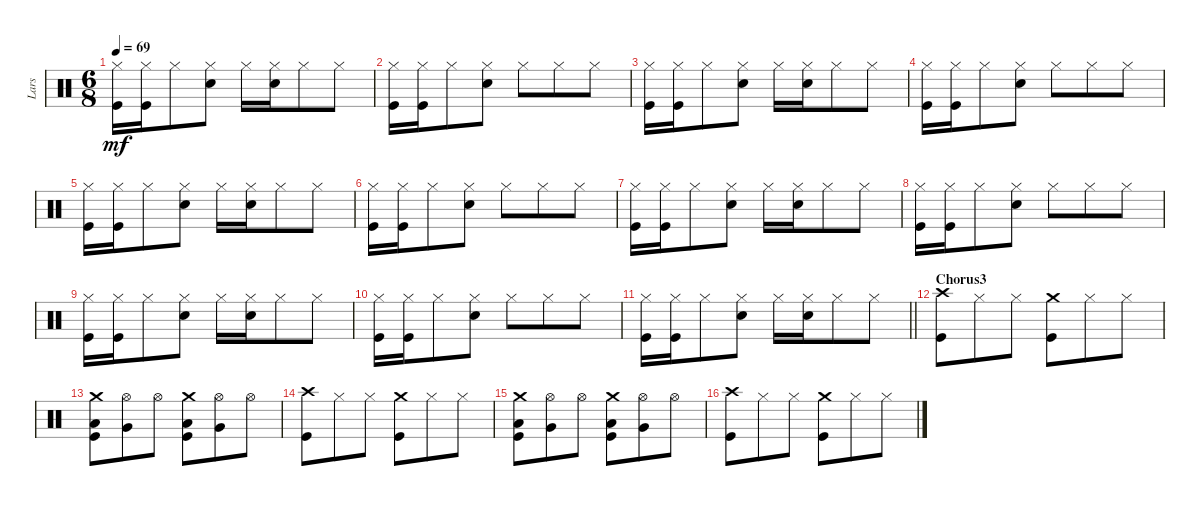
\track ("Lars" "Lars") {instrument percussion}
\staff {score}
\articulation defaults
\ts (6 8)
\tempo 69
\clef neutral
\ks c
("Hi-Hat (closed)" "Kick (hit)").16{dy mf} ("Hi-Hat (closed)" "Kick (hit)").16 "Hi-Hat (closed)".8 ("Hi-Hat (closed)" "Snare (hit) 2").8 "Hi-Hat (closed)".16 ("Hi-Hat (closed)" "Snare (hit) 2").16 "Hi-Hat (closed)".8 "Hi-Hat (closed)".8 |
("Hi-Hat (closed)" "Kick (hit)").16 ("Hi-Hat (closed)" "Kick (hit)").16 "Hi-Hat (closed)".8 ("Hi-Hat (closed)" "Snare (hit) 2").8 "Hi-Hat (closed)".8 "Hi-Hat (closed)".8 "Hi-Hat (closed)".8 |
("Hi-Hat (closed)" "Kick (hit)").16 ("Hi-Hat (closed)" "Kick (hit)").16 "Hi-Hat (closed)".8 ("Hi-Hat (closed)" "Snare (hit) 2").8 "Hi-Hat (closed)".16 ("Hi-Hat (closed)" "Snare (hit) 2").16 "Hi-Hat (closed)".8 "Hi-Hat (closed)".8 |
("Hi-Hat (closed)" "Kick (hit)").16 ("Hi-Hat (closed)" "Kick (hit)").16 "Hi-Hat (closed)".8 ("Hi-Hat (closed)" "Snare (hit) 2").8 "Hi-Hat (closed)".8 "Hi-Hat (closed)".8 "Hi-Hat (closed)".8 |
("Hi-Hat (closed)" "Kick (hit)").16 ("Hi-Hat (closed)" "Kick (hit)").16 "Hi-Hat (closed)".8 ("Hi-Hat (closed)" "Snare (hit) 2").8 "Hi-Hat (closed)".16 ("Hi-Hat (closed)" "Snare (hit) 2").16 "Hi-Hat (closed)".8 "Hi-Hat (closed)".8 |
("Hi-Hat (closed)" "Kick (hit)").16 ("Hi-Hat (closed)" "Kick (hit)").16 "Hi-Hat (closed)".8 ("Hi-Hat (closed)" "Snare (hit) 2").8 "Hi-Hat (closed)".8 "Hi-Hat (closed)".8 "Hi-Hat (closed)".8 |
("Hi-Hat (closed)" "Kick (hit)").16 ("Hi-Hat (closed)" "Kick (hit)").16 "Hi-Hat (closed)".8 ("Hi-Hat (closed)" "Snare (hit) 2").8 "Hi-Hat (closed)".16 ("Hi-Hat (closed)" "Snare (hit) 2").16 "Hi-Hat (closed)".8 "Hi-Hat (closed)".8 |
("Hi-Hat (closed)" "Kick (hit)").16 ("Hi-Hat (closed)" "Kick (hit)").16 "Hi-Hat (closed)".8 ("Hi-Hat (closed)" "Snare (hit) 2").8 "Hi-Hat (closed)".8 "Hi-Hat (closed)".8 "Hi-Hat (closed)".8 |
("Hi-Hat (closed)" "Kick (hit)").16 ("Hi-Hat (closed)" "Kick (hit)").16 "Hi-Hat (closed)".8 ("Hi-Hat (closed)" "Snare (hit) 2").8 "Hi-Hat (closed)".16 ("Hi-Hat (closed)" "Snare (hit) 2").16 "Hi-Hat (closed)".8 "Hi-Hat (closed)".8 |
("Hi-Hat (closed)" "Kick (hit)").16 ("Hi-Hat (closed)" "Kick (hit)").16 "Hi-Hat (closed)".8 ("Hi-Hat (closed)" "Snare (hit) 2").8 "Hi-Hat (closed)".8 "Hi-Hat (closed)".8 "Hi-Hat (closed)".8 |
\barLineRight lightlight
("Hi-Hat (closed)" "Kick (hit)").16 ("Hi-Hat (closed)" "Kick (hit)").16 "Hi-Hat (closed)".8 ("Hi-Hat (closed)" "Snare (hit) 2").8 "Hi-Hat (closed)".16 ("Hi-Hat (closed)" "Snare (hit) 2").16 "Hi-Hat (closed)".8 "Hi-Hat (closed)".8 |
\section ("" "Chorus3")
("Crash high (hit)" "Kick (hit)").8 "Hi-Hat (closed)".8 "Hi-Hat (closed)".8 ("Crash medium (hit)" "Kick (hit)").8 "Hi-Hat (closed)".8 "Hi-Hat (closed)".8 |
("Crash medium (hit)" "Low Tom (hit)" "Kick (hit)").8 ("Hi-Hat (open)" "Very Low Tom (hit)").8 "Hi-Hat (open)".8 ("Crash medium (hit)" "Low Tom (hit)" "Kick (hit)").8 ("Hi-Hat (open)" "Very Low Tom (hit)").8 "Hi-Hat (open)".8 |
("Crash high (hit)" "Kick (hit)").8 "Hi-Hat (closed)".8 "Hi-Hat (closed)".8 ("Crash medium (hit)" "Kick (hit)").8 "Hi-Hat (closed)".8 "Hi-Hat (closed)".8 |
("Crash medium (hit)" "Low Tom (hit)" "Kick (hit)").8 ("Hi-Hat (open)" "Very Low Tom (hit)").8 "Hi-Hat (open)".8 ("Crash medium (hit)" "Low Tom (hit)" "Kick (hit)").8 ("Hi-Hat (open)" "Very Low Tom (hit)").8 "Hi-Hat (open)".8 |
("Crash high (hit)" "Kick (hit)").8 "Hi-Hat (closed)".8 "Hi-Hat (closed)".8 ("Crash medium (hit)" "Kick (hit)").8 "Hi-Hat (closed)".8 "Hi-Hat (closed)".8
